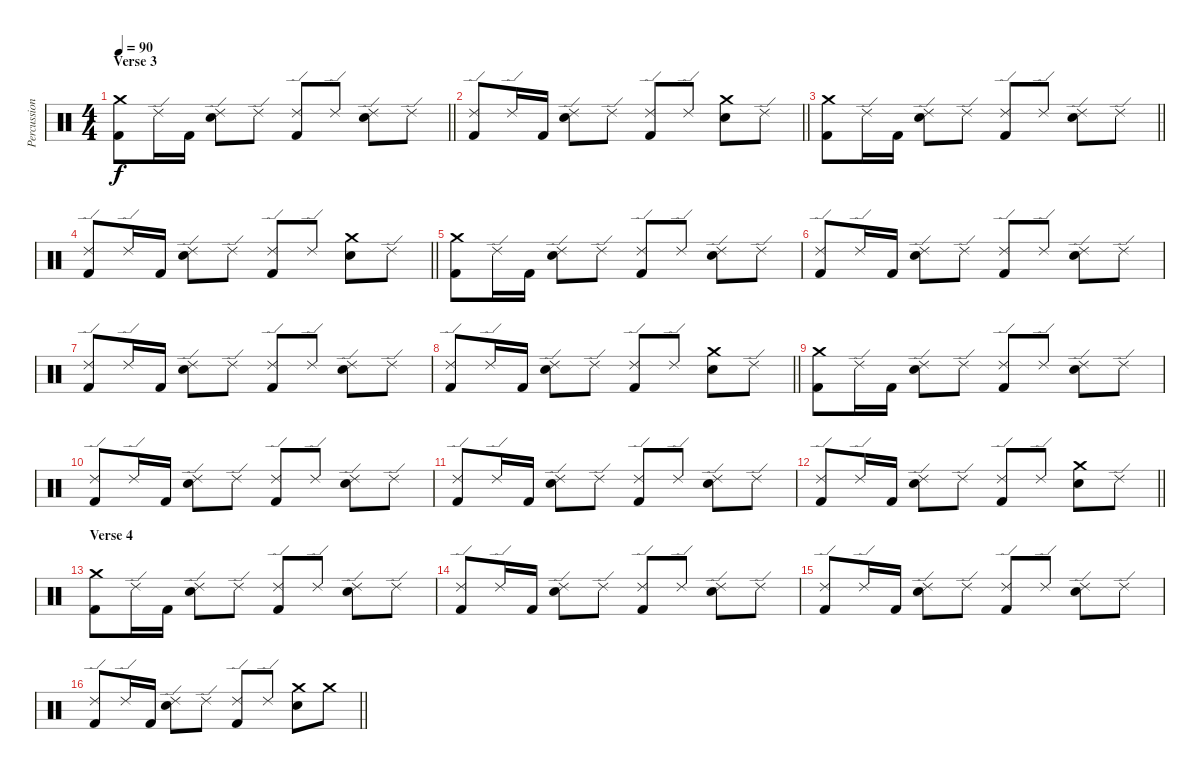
\track ("Percussion" "Percussion") {instrument percussion}
\staff {score}
\articulation defaults
\ts (4 4)
\section ("" "Verse 3")
\tempo 90
\clef neutral
\barLineRight lightlight
\ks c
("Crash medium (hit)" "Kick (hit) 2").8{dy f volume 9} "Ride (edge) 2".16 "Kick (hit) 2".16 ("Ride (edge) 2" "Electric Snare (hit)").8 "Ride (edge) 2".8 ("Ride (edge) 2" "Kick (hit) 2").8 "Ride (edge) 2".8 ("Ride (edge) 2" "Electric Snare (hit)").8 "Ride (edge) 2".8 |
\barLineRight lightlight
("Ride (edge) 2" "Kick (hit) 2").8 "Ride (edge) 2".16 "Kick (hit) 2".16 ("Ride (edge) 2" "Electric Snare (hit)").8 "Ride (edge) 2".8 ("Ride (edge) 2" "Kick (hit) 2").8 "Ride (edge) 2".8 ("Crash medium (hit)" "Electric Snare (hit)").8 "Ride (edge) 2".8 |
\barLineRight lightlight
("Crash medium (hit)" "Kick (hit) 2").8 "Ride (edge) 2".16 "Kick (hit) 2".16 ("Ride (edge) 2" "Electric Snare (hit)").8 "Ride (edge) 2".8 ("Ride (edge) 2" "Kick (hit) 2").8 "Ride (edge) 2".8 ("Ride (edge) 2" "Electric Snare (hit)").8 "Ride (edge) 2".8 |
\barLineRight lightlight
("Ride (edge) 2" "Kick (hit) 2").8 "Ride (edge) 2".16 "Kick (hit) 2".16 ("Ride (edge) 2" "Electric Snare (hit)").8 "Ride (edge) 2".8 ("Ride (edge) 2" "Kick (hit) 2").8 "Ride (edge) 2".8 ("Crash medium (hit)" "Electric Snare (hit)").8 "Ride (edge) 2".8 |
("Crash medium (hit)" "Kick (hit) 2").8 "Ride (edge) 2".16 "Kick (hit) 2".16 ("Ride (edge) 2" "Electric Snare (hit)").8 "Ride (edge) 2".8 ("Ride (edge) 2" "Kick (hit) 2").8 "Ride (edge) 2".8 ("Ride (edge) 2" "Electric Snare (hit)").8 "Ride (edge) 2".8 |
("Ride (edge) 2" "Kick (hit) 2").8 "Ride (edge) 2".16 "Kick (hit) 2".16 ("Ride (edge) 2" "Electric Snare (hit)").8 "Ride (edge) 2".8 ("Ride (edge) 2" "Kick (hit) 2").8 "Ride (edge) 2".8 ("Ride (edge) 2" "Electric Snare (hit)").8 "Ride (edge) 2".8 |
("Ride (edge) 2" "Kick (hit) 2").8 "Ride (edge) 2".16 "Kick (hit) 2".16 ("Ride (edge) 2" "Electric Snare (hit)").8 "Ride (edge) 2".8 ("Ride (edge) 2" "Kick (hit) 2").8 "Ride (edge) 2".8 ("Ride (edge) 2" "Electric Snare (hit)").8 "Ride (edge) 2".8 |
\barLineRight lightlight
("Ride (edge) 2" "Kick (hit) 2").8 "Ride (edge) 2".16 "Kick (hit) 2".16 ("Ride (edge) 2" "Electric Snare (hit)").8 "Ride (edge) 2".8 ("Ride (edge) 2" "Kick (hit) 2").8 "Ride (edge) 2".8 ("Crash medium (hit)" "Electric Snare (hit)").8 "Ride (edge) 2".8 |
("Crash medium (hit)" "Kick (hit) 2").8 "Ride (edge) 2".16 "Kick (hit) 2".16 ("Ride (edge) 2" "Electric Snare (hit)").8 "Ride (edge) 2".8 ("Ride (edge) 2" "Kick (hit) 2").8 "Ride (edge) 2".8 ("Ride (edge) 2" "Electric Snare (hit)").8 "Ride (edge) 2".8 |
("Ride (edge) 2" "Kick (hit) 2").8 "Ride (edge) 2".16 "Kick (hit) 2".16 ("Ride (edge) 2" "Electric Snare (hit)").8 "Ride (edge) 2".8 ("Ride (edge) 2" "Kick (hit) 2").8 "Ride (edge) 2".8 ("Ride (edge) 2" "Electric Snare (hit)").8 "Ride (edge) 2".8 |
("Ride (edge) 2" "Kick (hit) 2").8 "Ride (edge) 2".16 "Kick (hit) 2".16 ("Ride (edge) 2" "Electric Snare (hit)").8 "Ride (edge) 2".8 ("Ride (edge) 2" "Kick (hit) 2").8 "Ride (edge) 2".8 ("Ride (edge) 2" "Electric Snare (hit)").8 "Ride (edge) 2".8 |
\barLineRight lightlight
("Ride (edge) 2" "Kick (hit) 2").8 "Ride (edge) 2".16 "Kick (hit) 2".16 ("Ride (edge) 2" "Electric Snare (hit)").8 "Ride (edge) 2".8 ("Ride (edge) 2" "Kick (hit) 2").8 "Ride (edge) 2".8 ("Crash medium (hit)" "Electric Snare (hit)").8 "Ride (edge) 2".8 |
\section ("" "Verse 4")
("Crash medium (hit)" "Kick (hit) 2").8 "Ride (edge) 2".16 "Kick (hit) 2".16 ("Ride (edge) 2" "Electric Snare (hit)").8 "Ride (edge) 2".8 ("Ride (edge) 2" "Kick (hit) 2").8 "Ride (edge) 2".8 ("Ride (edge) 2" "Electric Snare (hit)").8 "Ride (edge) 2".8 |
("Ride (edge) 2" "Kick (hit) 2").8 "Ride (edge) 2".16 "Kick (hit) 2".16 ("Ride (edge) 2" "Electric Snare (hit)").8 "Ride (edge) 2".8 ("Ride (edge) 2" "Kick (hit) 2").8 "Ride (edge) 2".8 ("Ride (edge) 2" "Electric Snare (hit)").8 "Ride (edge) 2".8 |
("Ride (edge) 2" "Kick (hit) 2").8 "Ride (edge) 2".16 "Kick (hit) 2".16 ("Ride (edge) 2" "Electric Snare (hit)").8 "Ride (edge) 2".8 ("Ride (edge) 2" "Kick (hit) 2").8 "Ride (edge) 2".8 ("Ride (edge) 2" "Electric Snare (hit)").8 "Ride (edge) 2".8 |
\barLineRight lightlight
("Ride (edge) 2" "Kick (hit) 2").8 "Ride (edge) 2".16 "Kick (hit) 2".16 ("Ride (edge) 2" "Electric Snare (hit)").8 "Ride (edge) 2".8 ("Ride (edge) 2" "Kick (hit) 2").8 "Ride (edge) 2".8 ("Crash medium (hit)" "Electric Snare (hit)").8 "Crash medium (hit)".8
